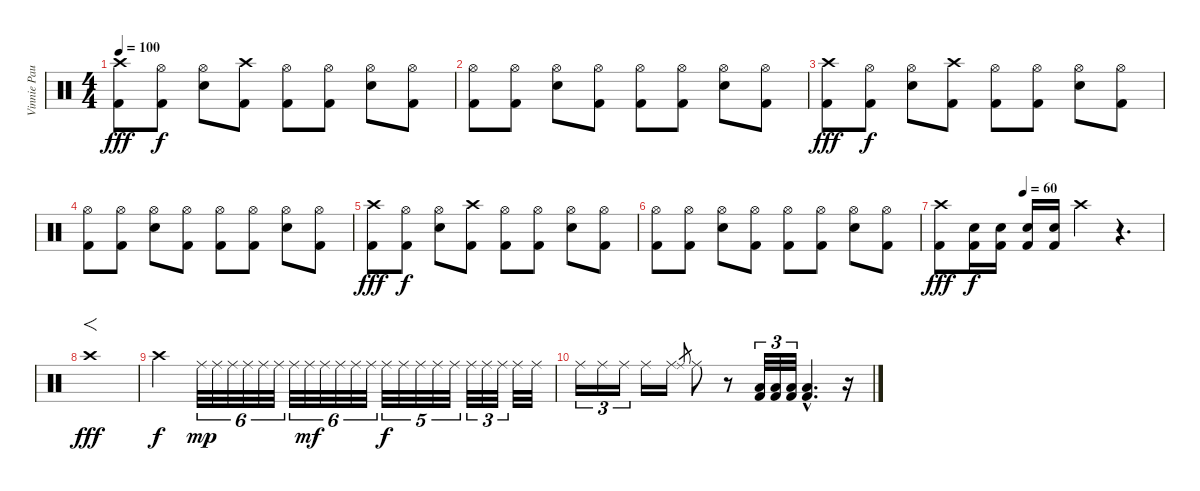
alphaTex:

\track ("Vinnie Paul # Drums" "Vinnie Pau") {instrument percussion}
\staff {score}
\articulation defaults
\ts (4 4)
\tempo 100
\clef neutral
\ks c
("Crash high (hit)" "Kick (hit) 2").8{dy fff} ("Hi-Hat (open)" "Kick (hit) 2").8{dy f} ("Hi-Hat (open)" "Electric Snare (hit)").8 ("Crash high (hit)" "Kick (hit) 2").8 ("Hi-Hat (open)" "Kick (hit) 2").8 ("Hi-Hat (open)" "Kick (hit) 2").8 ("Hi-Hat (open)" "Electric Snare (hit)").8 ("Hi-Hat (open)" "Kick (hit) 2").8 |
("Hi-Hat (open)" "Kick (hit) 2").8 ("Hi-Hat (open)" "Kick (hit) 2").8 ("Hi-Hat (open)" "Electric Snare (hit)").8 ("Hi-Hat (open)" "Kick (hit) 2").8 ("Hi-Hat (open)" "Kick (hit) 2").8 ("Hi-Hat (open)" "Kick (hit) 2").8 ("Hi-Hat (open)" "Electric Snare (hit)").8 ("Hi-Hat (open)" "Kick (hit) 2").8 |
("Crash high (hit)" "Kick (hit) 2").8{dy fff} ("Hi-Hat (open)" "Kick (hit) 2").8{dy f} ("Hi-Hat (open)" "Electric Snare (hit)").8 ("Crash high (hit)" "Kick (hit) 2").8 ("Hi-Hat (open)" "Kick (hit) 2").8 ("Hi-Hat (open)" "Kick (hit) 2").8 ("Hi-Hat (open)" "Electric Snare (hit)").8 ("Hi-Hat (open)" "Kick (hit) 2").8 |
("Hi-Hat (open)" "Kick (hit) 2").8 ("Hi-Hat (open)" "Kick (hit) 2").8 ("Hi-Hat (open)" "Electric Snare (hit)").8 ("Hi-Hat (open)" "Kick (hit) 2").8 ("Hi-Hat (open)" "Kick (hit) 2").8 ("Hi-Hat (open)" "Kick (hit) 2").8 ("Hi-Hat (open)" "Electric Snare (hit)").8 ("Hi-Hat (open)" "Kick (hit) 2").8 |
("Crash high (hit)" "Kick (hit) 2").8{dy fff} ("Hi-Hat (open)" "Kick (hit) 2").8{dy f} ("Hi-Hat (open)" "Electric Snare (hit)").8 ("Crash high (hit)" "Kick (hit) 2").8 ("Hi-Hat (open)" "Kick (hit) 2").8 ("Hi-Hat (open)" "Kick (hit) 2").8 ("Hi-Hat (open)" "Electric Snare (hit)").8 ("Hi-Hat (open)" "Kick (hit) 2").8 |
("Hi-Hat (open)" "Kick (hit) 2").8 ("Hi-Hat (open)" "Kick (hit) 2").8 ("Hi-Hat (open)" "Electric Snare (hit)").8 ("Hi-Hat (open)" "Kick (hit) 2").8 ("Hi-Hat (open)" "Kick (hit) 2").8 ("Hi-Hat (open)" "Kick (hit) 2").8 ("Hi-Hat (open)" "Electric Snare (hit)").8 ("Hi-Hat (open)" "Kick (hit) 2").8 |
\tempo (60 0.375)
("Crash high (hit)" "Kick (hit) 2").8{dy fff} ("Electric Snare (hit)" "Kick (hit) 2").16{dy f} ("Electric Snare (hit)" "Kick (hit) 2").16 ("Electric Snare (hit)" "Kick (hit) 2").16 ("Electric Snare (hit)" "Kick (hit) 2").16 "Crash high (hit)".4 r.4{d} |
"Crash high (hit)".1{f dy fff} |
"Crash high (hit)".2{dy f} "Ride (middle)".32{tu (6 4) dy mp} "Ride (middle)".32{tu (6 4)} "Ride (middle)".32{tu (6 4)} "Ride (middle)".32{tu (6 4)} "Ride (middle)".32{tu (6 4)} "Ride (middle)".32{tu (6 4)} "Ride (middle)".32{tu (6 4)} "Ride (middle)".32{tu (6 4) dy mf} "Ride (middle)".32{tu (6 4)} "Ride (middle)".32{tu (6 4)} "Ride (middle)".32{tu (6 4)} "Ride (middle)".32{tu (6 4)} "Ride (middle)".32{tu (5 4) dy f} "Ride (middle)".32{tu (5 4)} "Ride (middle)".32{tu (5 4)} "Ride (middle)".32{tu (5 4)} "Ride (middle)".32{tu (5 4)} "Ride (middle)".32{tu (3 2)} "Ride (middle)".32{tu (3 2)} "Ride (middle)".32{tu (3 2)} "Ride (middle)".32 "Ride (middle)".32 |
"Ride (middle)".16{tu (3 2)} "Ride (middle)".16{tu (3 2)} "Ride (middle)".16{tu (3 2)} "Ride (middle)".16 "Ride (middle)".16 "Ride (middle)".8{gr} "Ride (middle)".8 r.8 ("Low Floor Tom (hit)" "Kick (hit) 2").32{tu (3 2)} ("Low Floor Tom (hit)" "Kick (hit) 2").32{tu (3 2)} ("Low Floor Tom (hit)" "Kick (hit) 2").32{tu (3 2)} ("Low Floor Tom (hit)"{hac} "Kick (hit) 2"{hac}).4{d} r.16
